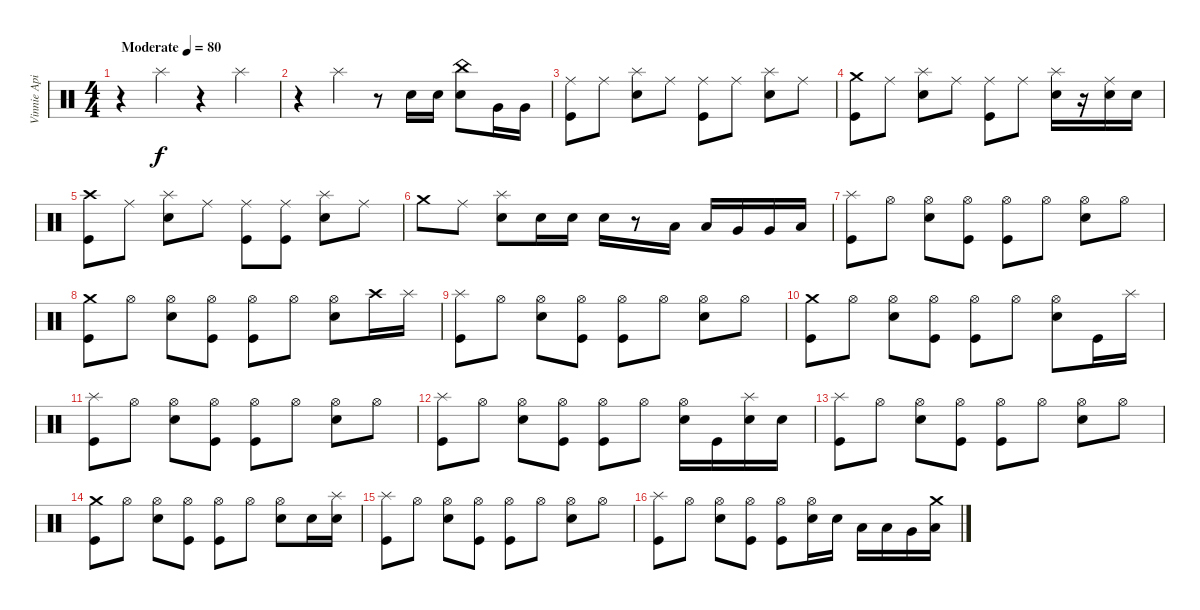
\track ("Vinnie Apice" "Vinnie Api") {instrument percussion}
\staff {score}
\articulation defaults
\ts (4 4)
\tempo (80 "Moderate")
\clef neutral
\ks c
r.4{dy f} "Splash (hit)".4 r.4 "Splash (hit)".4 |
r.4 "Splash (hit)".4 r.8 "Snare (hit) 2".16 "Snare (hit) 2".16 ("China (hit)" "Snare (hit) 2").8 "Very Low Tom (hit)".16 "Very Low Tom (hit)".16 |
("Ride (middle)" "Kick (hit)").8 "Ride (middle)".8 ("Splash (hit)" "Snare (hit) 2").8 "Ride (middle)".8 ("Ride (middle)" "Kick (hit)").8 "Ride (middle)".8 ("Splash (hit)" "Snare (hit) 2").8 "Ride (middle)".8 |
("Crash medium (hit)" "Kick (hit)").8 "Ride (middle)".8 ("Splash (hit)" "Snare (hit) 2").8 "Ride (middle)".8 ("Ride (middle)" "Kick (hit)").8 "Ride (middle)".8 ("Splash (hit)" "Snare (hit) 2").16 r.16 ("Ride (middle)" "Snare (hit) 2").16 "Snare (hit) 2".16 |
("Crash high (hit)" "Kick (hit)").8 "Ride (middle)".8 ("Splash (hit)" "Snare (hit) 2").8 "Ride (middle)".8 ("Ride (middle)" "Kick (hit)").8 ("Ride (middle)" "Kick (hit)").8 ("Splash (hit)" "Snare (hit) 2").8 "Ride (middle)".8 |
"Crash medium (hit)".8 "Ride (middle)".8 ("Splash (hit)" "Snare (hit) 2").8 "Snare (hit) 2".16 "Snare (hit) 2".16 "Snare (hit) 2".16 r.8 "Low Tom (hit)".16 "Low Tom (hit)".16 "Very Low Tom (hit)".16 "Very Low Tom (hit)".16 "Low Floor Tom (hit)".16 |
("Splash (hit)" "Kick (hit)").8 "Hi-Hat (open)".8 ("Hi-Hat (open)" "Snare (hit) 2").8 ("Hi-Hat (open)" "Kick (hit)").8 ("Hi-Hat (open)" "Kick (hit)").8 "Hi-Hat (open)".8 ("Hi-Hat (open)" "Snare (hit) 2").8 "Hi-Hat (open)".8 |
("Crash medium (hit)" "Kick (hit)").8 "Hi-Hat (open)".8 ("Hi-Hat (open)" "Snare (hit) 2").8 ("Hi-Hat (open)" "Kick (hit)").8 ("Hi-Hat (open)" "Kick (hit)").8 "Hi-Hat (open)".8 ("Hi-Hat (open)" "Snare (hit) 2").8 "Crash high (hit)".16 "Splash (hit)".16 |
("Splash (hit)" "Kick (hit)").8 "Hi-Hat (open)".8 ("Hi-Hat (open)" "Snare (hit) 2").8 ("Hi-Hat (open)" "Kick (hit)").8 ("Hi-Hat (open)" "Kick (hit)").8 "Hi-Hat (open)".8 ("Hi-Hat (open)" "Snare (hit) 2").8 "Hi-Hat (open)".8 |
("Crash medium (hit)" "Kick (hit)").8 "Hi-Hat (open)".8 ("Hi-Hat (open)" "Snare (hit) 2").8 ("Hi-Hat (open)" "Kick (hit)").8 ("Hi-Hat (open)" "Kick (hit)").8 "Hi-Hat (open)".8 ("Hi-Hat (open)" "Snare (hit) 2").8 "Kick (hit)".16 "Splash (hit)".16 |
("Splash (hit)" "Kick (hit)").8 "Hi-Hat (open)".8 ("Hi-Hat (open)" "Snare (hit) 2").8 ("Hi-Hat (open)" "Kick (hit)").8 ("Hi-Hat (open)" "Kick (hit)").8 "Hi-Hat (open)".8 ("Hi-Hat (open)" "Snare (hit) 2").8 "Hi-Hat (open)".8 |
("Splash (hit)" "Kick (hit)").8 "Hi-Hat (open)".8 ("Hi-Hat (open)" "Snare (hit) 2").8 ("Hi-Hat (open)" "Kick (hit)").8 ("Hi-Hat (open)" "Kick (hit)").8 "Hi-Hat (open)".8 ("Hi-Hat (open)" "Snare (hit) 2").16 "Kick (hit)".16 ("Splash (hit)" "Snare (hit) 2").16 "Snare (hit) 2".16 |
("Splash (hit)" "Kick (hit)").8 "Hi-Hat (open)".8 ("Hi-Hat (open)" "Snare (hit) 2").8 ("Hi-Hat (open)" "Kick (hit)").8 ("Hi-Hat (open)" "Kick (hit)").8 "Hi-Hat (open)".8 ("Hi-Hat (open)" "Snare (hit) 2").8 "Hi-Hat (open)".8 |
("Crash medium (hit)" "Kick (hit)").8 "Hi-Hat (open)".8 ("Hi-Hat (open)" "Snare (hit) 2").8 ("Hi-Hat (open)" "Kick (hit)").8 ("Hi-Hat (open)" "Kick (hit)").8 "Hi-Hat (open)".8 ("Hi-Hat (open)" "Snare (hit) 2").8 "Snare (hit) 2".16 ("Splash (hit)" "Snare (hit) 2").16 |
("Splash (hit)" "Kick (hit)").8 "Hi-Hat (open)".8 ("Hi-Hat (open)" "Snare (hit) 2").8 ("Hi-Hat (open)" "Kick (hit)").8 ("Hi-Hat (open)" "Kick (hit)").8 "Hi-Hat (open)".8 ("Hi-Hat (open)" "Snare (hit) 2").8 "Hi-Hat (open)".8 |
("Splash (hit)" "Kick (hit)").8 "Hi-Hat (open)".8 ("Hi-Hat (open)" "Snare (hit) 2").8 ("Hi-Hat (open)" "Kick (hit)").8 ("Hi-Hat (open)" "Kick (hit)").8 ("Hi-Hat (open)" "Snare (hit) 2").16 "Snare (hit) 2".16 "Low Tom (hit)".16 "Low Tom (hit)".16 "Very Low Tom (hit)".16 ("Crash medium (hit)" "Low Floor Tom (hit)").16
